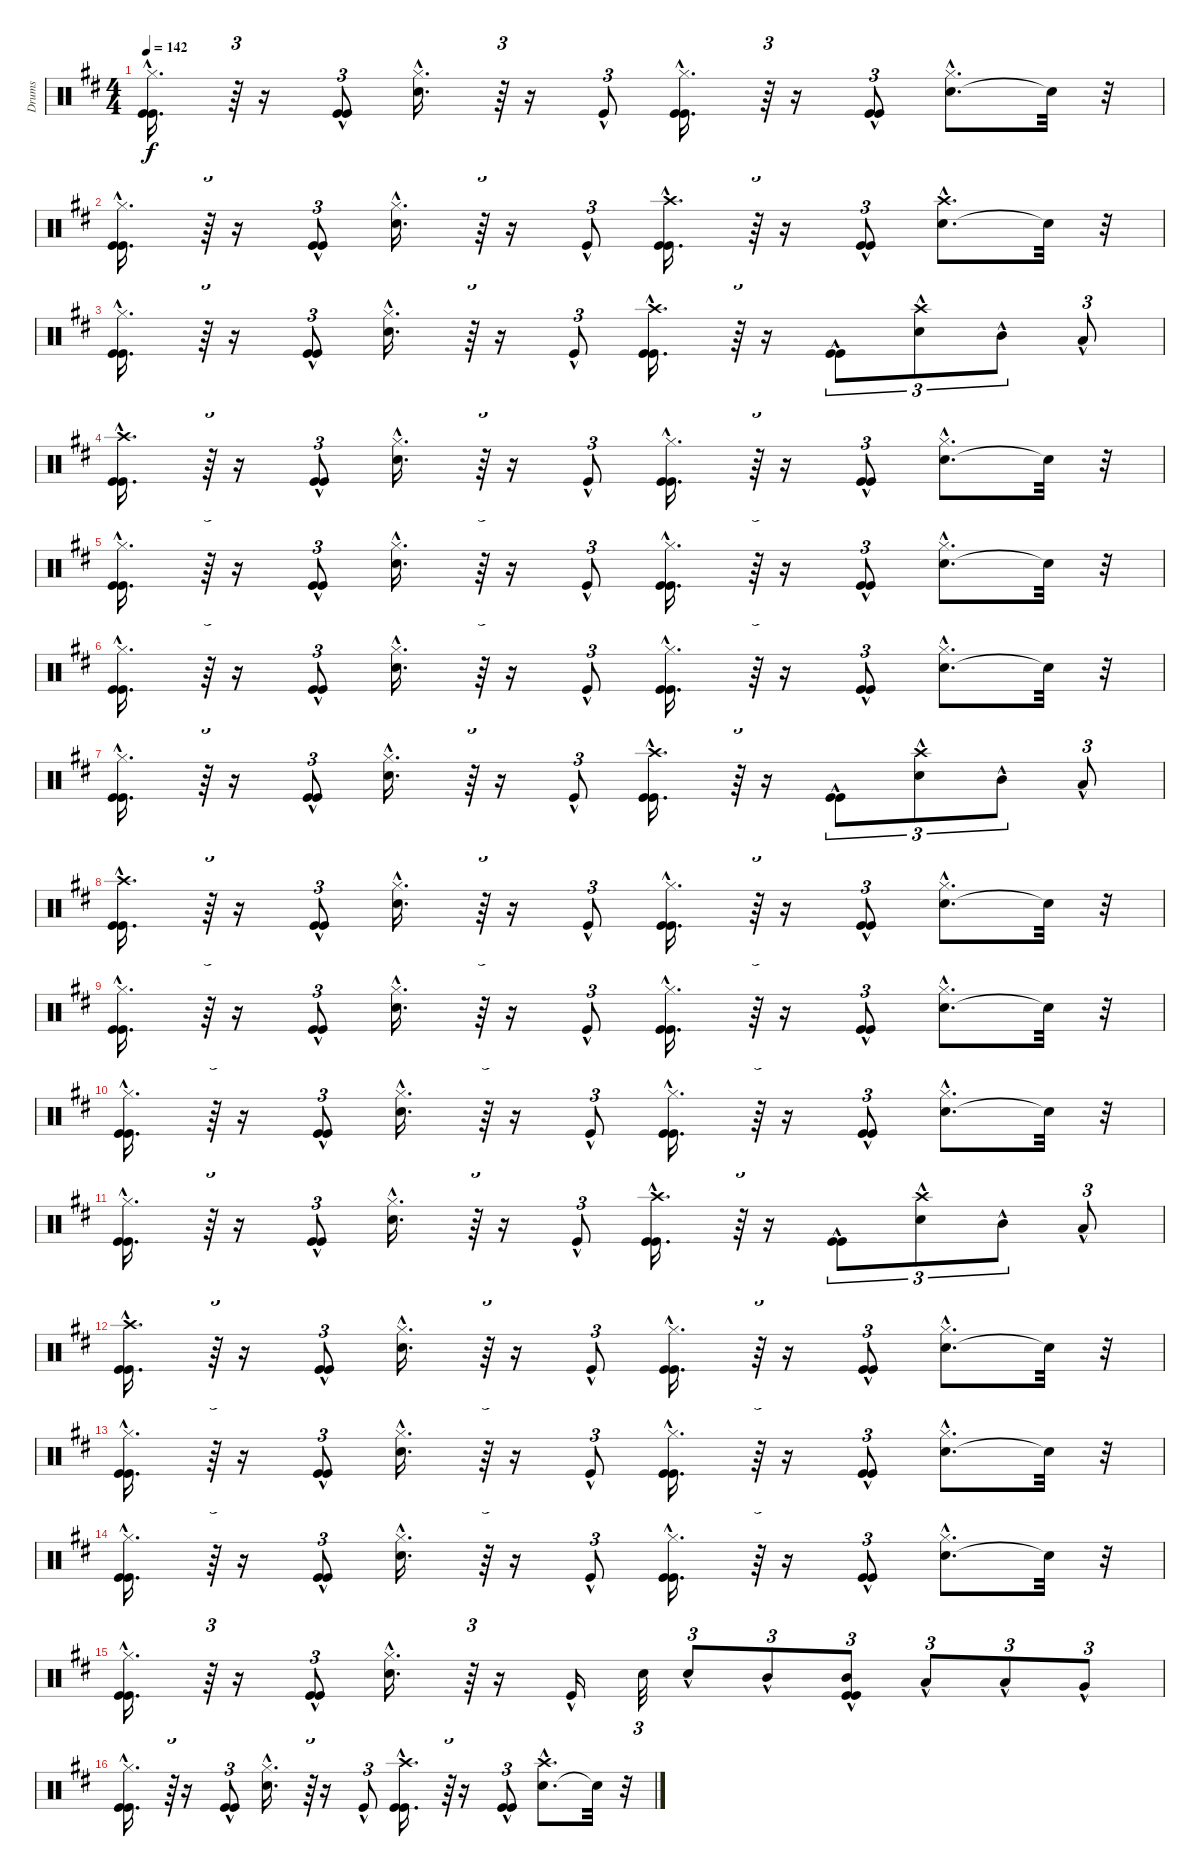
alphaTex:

\track ("Drums" "Drums") {instrument percussion}
\staff {score}
\articulation defaults
\ts (4 4)
\tempo 142
\clef neutral
\ks bminor
("Kick (hit)"{hac} "Kick (hit)"{hac} "Hi-Hat (closed)"{hac}).16{d dy f} r.64{tu (3 2)} r.16 ("Kick (hit)"{hac} "Kick (hit)"{hac}).8{tu (3 2)} ("Snare (hit) 2"{hac} "Hi-Hat (closed)"{hac}).16{d} r.64{tu (3 2)} r.16 "Kick (hit)"{hac}.8{tu (3 2)} ("Kick (hit)"{hac} "Kick (hit)"{hac} "Hi-Hat (closed)"{hac}).16{d} r.64{tu (3 2)} r.16 ("Kick (hit)"{hac} "Kick (hit)"{hac}).8{tu (3 2)} ("Snare (hit) 2"{hac} "Hi-Hat (closed)"{hac}).8{d} "Snare (hit)"{t}.32 r.32 |
("Kick (hit)"{hac} "Kick (hit)"{hac} "Hi-Hat (closed)"{hac}).16{d} r.64{tu (3 2)} r.16 ("Kick (hit)"{hac} "Kick (hit)"{hac}).8{tu (3 2)} ("Snare (hit) 2"{hac} "Hi-Hat (closed)"{hac}).16{d} r.64{tu (3 2)} r.16 "Kick (hit)"{hac}.8{tu (3 2)} ("Kick (hit)"{hac} "Kick (hit)"{hac} "Crash high (hit)"{hac}).16{d} r.64{tu (3 2)} r.16 ("Kick (hit)"{hac} "Kick (hit)"{hac}).8{tu (3 2)} ("Snare (hit) 2"{hac} "Crash high (hit)"{hac}).8{d} "Snare (hit)"{t}.32 r.32 |
("Kick (hit)"{hac} "Kick (hit)"{hac} "Hi-Hat (closed)"{hac}).16{d} r.64{tu (3 2)} r.16 ("Kick (hit)"{hac} "Kick (hit)"{hac}).8{tu (3 2)} ("Snare (hit) 2"{hac} "Hi-Hat (closed)"{hac}).16{d} r.64{tu (3 2)} r.16 "Kick (hit)"{hac}.8{tu (3 2)} ("Kick (hit)"{hac} "Kick (hit)"{hac} "Crash high (hit)"{hac}).16{d} r.64{tu (3 2)} r.16 ("Kick (hit)"{hac} "Kick (hit)"{hac}).8{tu (3 2)} ("Snare (hit) 2"{hac} "Crash high (hit)"{hac}).8{tu (3 2)} "Mid Tom (hit)"{hac}.8{tu (3 2)} "Low Tom (hit)"{hac}.8{tu (3 2)} |
("Kick (hit)"{hac} "Kick (hit)"{hac} "Crash high (hit)"{hac}).16{d} r.64{tu (3 2)} r.16 ("Kick (hit)"{hac} "Kick (hit)"{hac}).8{tu (3 2)} ("Snare (hit) 2"{hac} "Hi-Hat (closed)"{hac}).16{d} r.64{tu (3 2)} r.16 "Kick (hit)"{hac}.8{tu (3 2)} ("Kick (hit)"{hac} "Kick (hit)"{hac} "Hi-Hat (closed)"{hac}).16{d} r.64{tu (3 2)} r.16 ("Kick (hit)"{hac} "Kick (hit)"{hac}).8{tu (3 2)} ("Snare (hit) 2"{hac} "Hi-Hat (closed)"{hac}).8{d} "Snare (hit)"{t}.32 r.32 |
("Kick (hit)"{hac} "Kick (hit)"{hac} "Hi-Hat (closed)"{hac}).16{d} r.64{tu (3 2)} r.16 ("Kick (hit)"{hac} "Kick (hit)"{hac}).8{tu (3 2)} ("Snare (hit) 2"{hac} "Hi-Hat (closed)"{hac}).16{d} r.64{tu (3 2)} r.16 "Kick (hit)"{hac}.8{tu (3 2)} ("Kick (hit)"{hac} "Kick (hit)"{hac} "Hi-Hat (closed)"{hac}).16{d} r.64{tu (3 2)} r.16 ("Kick (hit)"{hac} "Kick (hit)"{hac}).8{tu (3 2)} ("Snare (hit) 2"{hac} "Hi-Hat (closed)"{hac}).8{d} "Snare (hit)"{t}.32 r.32 |
("Kick (hit)"{hac} "Kick (hit)"{hac} "Hi-Hat (closed)"{hac}).16{d} r.64{tu (3 2)} r.16 ("Kick (hit)"{hac} "Kick (hit)"{hac}).8{tu (3 2)} ("Snare (hit) 2"{hac} "Hi-Hat (closed)"{hac}).16{d} r.64{tu (3 2)} r.16 "Kick (hit)"{hac}.8{tu (3 2)} ("Kick (hit)"{hac} "Kick (hit)"{hac} "Hi-Hat (closed)"{hac}).16{d} r.64{tu (3 2)} r.16 ("Kick (hit)"{hac} "Kick (hit)"{hac}).8{tu (3 2)} ("Snare (hit) 2"{hac} "Hi-Hat (closed)"{hac}).8{d} "Snare (hit)"{t}.32 r.32 |
("Kick (hit)"{hac} "Kick (hit)"{hac} "Hi-Hat (closed)"{hac}).16{d} r.64{tu (3 2)} r.16 ("Kick (hit)"{hac} "Kick (hit)"{hac}).8{tu (3 2)} ("Snare (hit) 2"{hac} "Hi-Hat (closed)"{hac}).16{d} r.64{tu (3 2)} r.16 "Kick (hit)"{hac}.8{tu (3 2)} ("Kick (hit)"{hac} "Kick (hit)"{hac} "Crash high (hit)"{hac}).16{d} r.64{tu (3 2)} r.16 ("Kick (hit)"{hac} "Kick (hit)"{hac}).8{tu (3 2)} ("Snare (hit) 2"{hac} "Crash high (hit)"{hac}).8{tu (3 2)} "Mid Tom (hit)"{hac}.8{tu (3 2)} "Low Tom (hit)"{hac}.8{tu (3 2)} |
("Kick (hit)"{hac} "Kick (hit)"{hac} "Crash high (hit)"{hac}).16{d} r.64{tu (3 2)} r.16 ("Kick (hit)"{hac} "Kick (hit)"{hac}).8{tu (3 2)} ("Snare (hit) 2"{hac} "Hi-Hat (closed)"{hac}).16{d} r.64{tu (3 2)} r.16 "Kick (hit)"{hac}.8{tu (3 2)} ("Kick (hit)"{hac} "Kick (hit)"{hac} "Hi-Hat (closed)"{hac}).16{d} r.64{tu (3 2)} r.16 ("Kick (hit)"{hac} "Kick (hit)"{hac}).8{tu (3 2)} ("Snare (hit) 2"{hac} "Hi-Hat (closed)"{hac}).8{d} "Snare (hit)"{t}.32 r.32 |
("Kick (hit)"{hac} "Kick (hit)"{hac} "Hi-Hat (closed)"{hac}).16{d} r.64{tu (3 2)} r.16 ("Kick (hit)"{hac} "Kick (hit)"{hac}).8{tu (3 2)} ("Snare (hit) 2"{hac} "Hi-Hat (closed)"{hac}).16{d} r.64{tu (3 2)} r.16 "Kick (hit)"{hac}.8{tu (3 2)} ("Kick (hit)"{hac} "Kick (hit)"{hac} "Hi-Hat (closed)"{hac}).16{d} r.64{tu (3 2)} r.16 ("Kick (hit)"{hac} "Kick (hit)"{hac}).8{tu (3 2)} ("Snare (hit) 2"{hac} "Hi-Hat (closed)"{hac}).8{d} "Snare (hit)"{t}.32 r.32 |
("Kick (hit)"{hac} "Kick (hit)"{hac} "Hi-Hat (closed)"{hac}).16{d} r.64{tu (3 2)} r.16 ("Kick (hit)"{hac} "Kick (hit)"{hac}).8{tu (3 2)} ("Snare (hit) 2"{hac} "Hi-Hat (closed)"{hac}).16{d} r.64{tu (3 2)} r.16 "Kick (hit)"{hac}.8{tu (3 2)} ("Kick (hit)"{hac} "Kick (hit)"{hac} "Hi-Hat (closed)"{hac}).16{d} r.64{tu (3 2)} r.16 ("Kick (hit)"{hac} "Kick (hit)"{hac}).8{tu (3 2)} ("Snare (hit) 2"{hac} "Hi-Hat (closed)"{hac}).8{d} "Snare (hit)"{t}.32 r.32 |
("Kick (hit)"{hac} "Kick (hit)"{hac} "Hi-Hat (closed)"{hac}).16{d} r.64{tu (3 2)} r.16 ("Kick (hit)"{hac} "Kick (hit)"{hac}).8{tu (3 2)} ("Snare (hit) 2"{hac} "Hi-Hat (closed)"{hac}).16{d} r.64{tu (3 2)} r.16 "Kick (hit)"{hac}.8{tu (3 2)} ("Kick (hit)"{hac} "Kick (hit)"{hac} "Crash high (hit)"{hac}).16{d} r.64{tu (3 2)} r.16 ("Kick (hit)"{hac} "Kick (hit)"{hac}).8{tu (3 2)} ("Snare (hit) 2"{hac} "Crash high (hit)"{hac}).8{tu (3 2)} "Mid Tom (hit)"{hac}.8{tu (3 2)} "Low Tom (hit)"{hac}.8{tu (3 2)} |
("Kick (hit)"{hac} "Kick (hit)"{hac} "Crash high (hit)"{hac}).16{d} r.64{tu (3 2)} r.16 ("Kick (hit)"{hac} "Kick (hit)"{hac}).8{tu (3 2)} ("Snare (hit) 2"{hac} "Hi-Hat (closed)"{hac}).16{d} r.64{tu (3 2)} r.16 "Kick (hit)"{hac}.8{tu (3 2)} ("Kick (hit)"{hac} "Kick (hit)"{hac} "Hi-Hat (closed)"{hac}).16{d} r.64{tu (3 2)} r.16 ("Kick (hit)"{hac} "Kick (hit)"{hac}).8{tu (3 2)} ("Snare (hit) 2"{hac} "Hi-Hat (closed)"{hac}).8{d} "Snare (hit)"{t}.32 r.32 |
("Kick (hit)"{hac} "Kick (hit)"{hac} "Hi-Hat (closed)"{hac}).16{d} r.64{tu (3 2)} r.16 ("Kick (hit)"{hac} "Kick (hit)"{hac}).8{tu (3 2)} ("Snare (hit) 2"{hac} "Hi-Hat (closed)"{hac}).16{d} r.64{tu (3 2)} r.16 "Kick (hit)"{hac}.8{tu (3 2)} ("Kick (hit)"{hac} "Kick (hit)"{hac} "Hi-Hat (closed)"{hac}).16{d} r.64{tu (3 2)} r.16 ("Kick (hit)"{hac} "Kick (hit)"{hac}).8{tu (3 2)} ("Snare (hit) 2"{hac} "Hi-Hat (closed)"{hac}).8{d} "Snare (hit)"{t}.32 r.32 |
("Kick (hit)"{hac} "Kick (hit)"{hac} "Hi-Hat (closed)"{hac}).16{d} r.64{tu (3 2)} r.16 ("Kick (hit)"{hac} "Kick (hit)"{hac}).8{tu (3 2)} ("Snare (hit) 2"{hac} "Hi-Hat (closed)"{hac}).16{d} r.64{tu (3 2)} r.16 "Kick (hit)"{hac}.8{tu (3 2)} ("Kick (hit)"{hac} "Kick (hit)"{hac} "Hi-Hat (closed)"{hac}).16{d} r.64{tu (3 2)} r.16 ("Kick (hit)"{hac} "Kick (hit)"{hac}).8{tu (3 2)} ("Snare (hit) 2"{hac} "Hi-Hat (closed)"{hac}).8{d} "Snare (hit)"{t}.32 r.32 |
("Kick (hit)"{hac} "Kick (hit)"{hac} "Hi-Hat (closed)"{hac}).16{d} r.64{tu (3 2)} r.16 ("Kick (hit)"{hac} "Kick (hit)"{hac}).8{tu (3 2)} ("Snare (hit) 2"{hac} "Hi-Hat (closed)"{hac}).16{d} r.64{tu (3 2)} r.16 "Kick (hit)"{hac}.16 "Snare (hit) 2".32{tu (3 2)} "Snare (hit) 2"{hac}.8{tu (3 2)} "Mid Tom (hit)"{hac}.8{tu (3 2)} ("Kick (hit)"{hac} "Kick (hit)"{hac} "Mid Tom (hit)"{hac}).8{tu (3 2)} "Low Tom (hit)"{hac}.8{tu (3 2)} "Low Tom (hit)"{hac}.8{tu (3 2)} "Very Low Tom (hit)"{hac}.8{tu (3 2)} |
("Kick (hit)"{hac} "Kick (hit)"{hac} "Hi-Hat (closed)"{hac}).16{d} r.64{tu (3 2)} r.16 ("Kick (hit)"{hac} "Kick (hit)"{hac}).8{tu (3 2)} ("Snare (hit) 2"{hac} "Hi-Hat (closed)"{hac}).16{d} r.64{tu (3 2)} r.16 "Kick (hit)"{hac}.8{tu (3 2)} ("Kick (hit)"{hac} "Kick (hit)"{hac} "Crash high (hit)"{hac}).16{d} r.64{tu (3 2)} r.16 ("Kick (hit)"{hac} "Kick (hit)"{hac}).8{tu (3 2)} ("Snare (hit) 2"{hac} "Crash high (hit)"{hac}).8{d} "Snare (hit)"{t}.32 r.32
